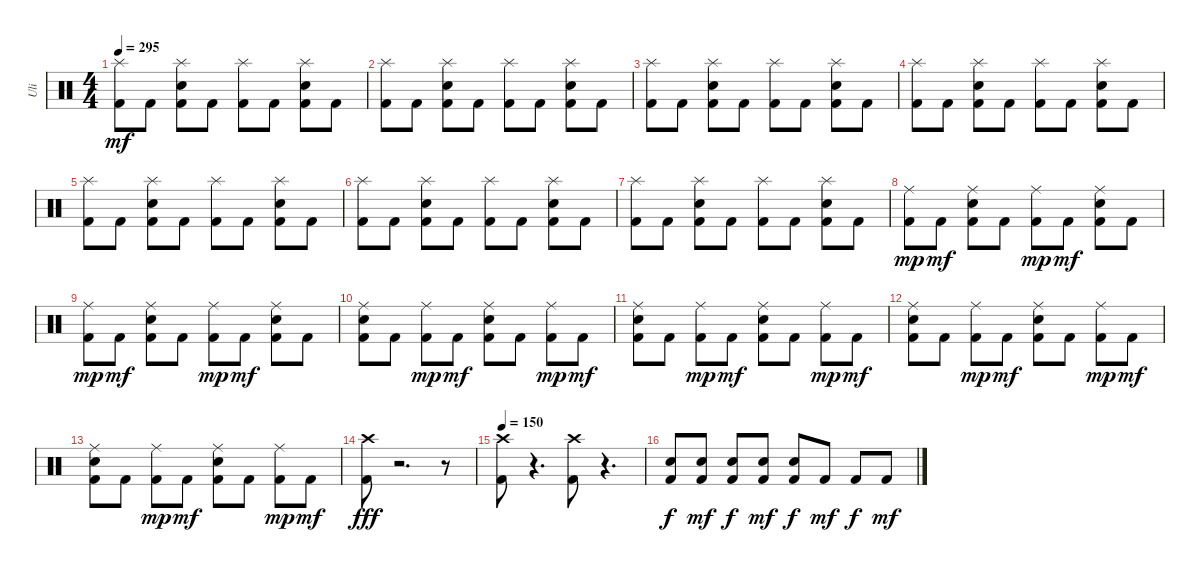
\track ("Uli" "Uli") {instrument percussion}
\staff {score}
\articulation defaults
\ts (4 4)
\tempo 295
\clef neutral
\ks c
("Splash (hit)" "Kick (hit) 2").8{dy mf} "Kick (hit) 2".8{volume 16} ("Splash (hit)" "Electric Snare (hit)" "Kick (hit) 2").8 "Kick (hit) 2".8 ("Splash (hit)" "Kick (hit) 2").8 "Kick (hit) 2".8 ("Splash (hit)" "Electric Snare (hit)" "Kick (hit) 2").8 "Kick (hit) 2".8 |
("Splash (hit)" "Kick (hit) 2").8 "Kick (hit) 2".8{volume 16} ("Splash (hit)" "Electric Snare (hit)" "Kick (hit) 2").8 "Kick (hit) 2".8 ("Splash (hit)" "Kick (hit) 2").8 "Kick (hit) 2".8 ("Splash (hit)" "Electric Snare (hit)" "Kick (hit) 2").8 "Kick (hit) 2".8 |
("Splash (hit)" "Kick (hit) 2").8 "Kick (hit) 2".8{volume 16} ("Splash (hit)" "Electric Snare (hit)" "Kick (hit) 2").8 "Kick (hit) 2".8 ("Splash (hit)" "Kick (hit) 2").8 "Kick (hit) 2".8 ("Splash (hit)" "Electric Snare (hit)" "Kick (hit) 2").8 "Kick (hit) 2".8 |
("Splash (hit)" "Kick (hit) 2").8 "Kick (hit) 2".8{volume 16} ("Splash (hit)" "Electric Snare (hit)" "Kick (hit) 2").8 "Kick (hit) 2".8 ("Splash (hit)" "Kick (hit) 2").8 "Kick (hit) 2".8 ("Splash (hit)" "Electric Snare (hit)" "Kick (hit) 2").8 "Kick (hit) 2".8 |
("Splash (hit)" "Kick (hit) 2").8 "Kick (hit) 2".8{volume 16} ("Splash (hit)" "Electric Snare (hit)" "Kick (hit) 2").8 "Kick (hit) 2".8 ("Splash (hit)" "Kick (hit) 2").8 "Kick (hit) 2".8 ("Splash (hit)" "Electric Snare (hit)" "Kick (hit) 2").8 "Kick (hit) 2".8 |
("Splash (hit)" "Kick (hit) 2").8 "Kick (hit) 2".8{volume 16} ("Splash (hit)" "Electric Snare (hit)" "Kick (hit) 2").8 "Kick (hit) 2".8 ("Splash (hit)" "Kick (hit) 2").8 "Kick (hit) 2".8 ("Splash (hit)" "Electric Snare (hit)" "Kick (hit) 2").8 "Kick (hit) 2".8 |
("Splash (hit)" "Kick (hit) 2").8 "Kick (hit) 2".8{volume 16} ("Splash (hit)" "Electric Snare (hit)" "Kick (hit) 2").8 "Kick (hit) 2".8 ("Splash (hit)" "Kick (hit) 2").8 "Kick (hit) 2".8 ("Splash (hit)" "Electric Snare (hit)" "Kick (hit) 2").8 "Kick (hit) 2".8 |
("Ride (middle)" "Kick (hit) 2").8{dy mp} "Kick (hit) 2".8{dy mf volume 16} ("Ride (middle)" "Electric Snare (hit)" "Kick (hit) 2").8 "Kick (hit) 2".8 ("Ride (middle)" "Kick (hit) 2").8{dy mp} "Kick (hit) 2".8{dy mf} ("Ride (middle)" "Electric Snare (hit)" "Kick (hit) 2").8 "Kick (hit) 2".8 |
("Ride (middle)" "Kick (hit) 2").8{dy mp} "Kick (hit) 2".8{dy mf volume 16} ("Ride (middle)" "Electric Snare (hit)" "Kick (hit) 2").8 "Kick (hit) 2".8 ("Ride (middle)" "Kick (hit) 2").8{dy mp} "Kick (hit) 2".8{dy mf} ("Ride (middle)" "Electric Snare (hit)" "Kick (hit) 2").8 "Kick (hit) 2".8 |
("Ride (middle)" "Electric Snare (hit)" "Kick (hit) 2").8 "Kick (hit) 2".8{volume 16} ("Ride (middle)" "Kick (hit) 2").8{dy mp} "Kick (hit) 2".8{dy mf} ("Ride (middle)" "Electric Snare (hit)" "Kick (hit) 2").8 "Kick (hit) 2".8 ("Ride (middle)" "Kick (hit) 2").8{dy mp} "Kick (hit) 2".8{dy mf} |
("Ride (middle)" "Electric Snare (hit)" "Kick (hit) 2").8 "Kick (hit) 2".8{volume 16} ("Ride (middle)" "Kick (hit) 2").8{dy mp} "Kick (hit) 2".8{dy mf} ("Ride (middle)" "Electric Snare (hit)" "Kick (hit) 2").8 "Kick (hit) 2".8 ("Ride (middle)" "Kick (hit) 2").8{dy mp} "Kick (hit) 2".8{dy mf} |
("Ride (middle)" "Electric Snare (hit)" "Kick (hit) 2").8 "Kick (hit) 2".8{volume 16} ("Ride (middle)" "Kick (hit) 2").8{dy mp} "Kick (hit) 2".8{dy mf} ("Ride (middle)" "Electric Snare (hit)" "Kick (hit) 2").8 "Kick (hit) 2".8 ("Ride (middle)" "Kick (hit) 2").8{dy mp} "Kick (hit) 2".8{dy mf} |
("Ride (middle)" "Electric Snare (hit)" "Kick (hit) 2").8 "Kick (hit) 2".8{volume 16} ("Ride (middle)" "Kick (hit) 2").8{dy mp} "Kick (hit) 2".8{dy mf} ("Ride (middle)" "Electric Snare (hit)" "Kick (hit) 2").8 "Kick (hit) 2".8 ("Ride (middle)" "Kick (hit) 2").8{dy mp} "Kick (hit) 2".8{dy mf} |
("Crash high (hit)" "Kick (hit) 2").8{dy fff} r.2{d} r.8 |
\tempo 150
("Crash high (hit)" "Kick (hit) 2").8 r.4{d} ("Crash high (hit)" "Kick (hit) 2").8 r.4{d} |
("Electric Snare (hit)" "Kick (hit) 2").8{dy f} ("Electric Snare (hit)" "Kick (hit) 2").8{dy mf volume 16} ("Electric Snare (hit)" "Kick (hit) 2").8{dy f} ("Electric Snare (hit)" "Kick (hit) 2").8{dy mf} ("Electric Snare (hit)" "Kick (hit) 2").8{dy f} "Kick (hit) 2".8{dy mf} "Kick (hit) 2".8{dy f} "Kick (hit) 2".8{dy mf}
